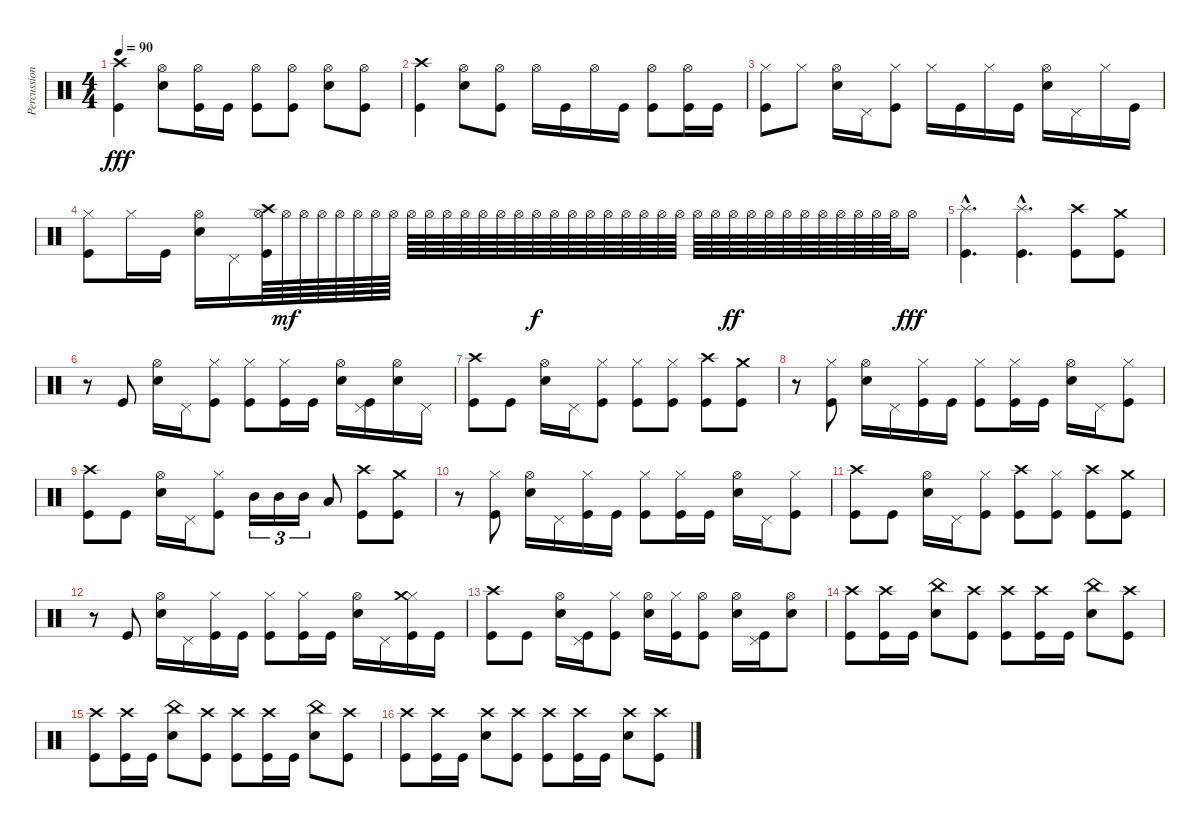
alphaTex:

\track ("Percussion" "Percussion") {instrument percussion}
\staff {score}
\articulation defaults
\ts (4 4)
\tempo 90
\clef neutral
\ks c
("Crash high (hit)" "Kick (hit)").4{dy fff} ("Hi-Hat (open)" "Electric Snare (hit)").8 ("Hi-Hat (open)" "Kick (hit)").16 "Kick (hit)".16 ("Hi-Hat (open)" "Kick (hit)").8 ("Hi-Hat (open)" "Kick (hit)").8 ("Hi-Hat (open)" "Electric Snare (hit)").8 ("Hi-Hat (open)" "Kick (hit)").8 |
("Crash high (hit)" "Kick (hit)").4 ("Hi-Hat (open)" "Electric Snare (hit)").8 ("Hi-Hat (open)" "Kick (hit)").8 "Hi-Hat (open)".16 "Kick (hit)".16 "Hi-Hat (open)".16 "Kick (hit)".16 ("Hi-Hat (open)" "Kick (hit)").8 ("Hi-Hat (open)" "Kick (hit)").16 "Kick (hit)".16 |
("Hi-Hat (closed)" "Kick (hit)").8 "Hi-Hat (closed)".8 ("Hi-Hat (open)" "Electric Snare (hit)").16 "Pedal Hi-Hat (hit)".16 ("Hi-Hat (closed)" "Kick (hit)").8 "Hi-Hat (closed)".16 "Kick (hit)".16 "Hi-Hat (closed)".16 "Kick (hit)".16 ("Hi-Hat (open)" "Electric Snare (hit)").16 "Pedal Hi-Hat (hit)".16 "Hi-Hat (closed)".16 "Kick (hit)".16 |
("Hi-Hat (closed)" "Kick (hit)").8 "Hi-Hat (closed)".16 "Kick (hit)".16 ("Hi-Hat (open)" "Electric Snare (hit)").16 "Pedal Hi-Hat (hit)".16 ("Hi-Hat (open)" "Crash high (hit)" "Kick (hit)").64 "Hi-Hat (open)".64{dy mf} "Hi-Hat (open)".64 "Hi-Hat (open)".64 "Hi-Hat (open)".64 "Hi-Hat (open)".64 "Hi-Hat (open)".64 "Hi-Hat (open)".64 "Hi-Hat (open)".64 "Hi-Hat (open)".64 "Hi-Hat (open)".64 "Hi-Hat (open)".64 "Hi-Hat (open)".64 "Hi-Hat (open)".64 "Hi-Hat (open)".64 "Hi-Hat (open)".64{dy f} "Hi-Hat (open)".64 "Hi-Hat (open)".64 "Hi-Hat (open)".64 "Hi-Hat (open)".64 "Hi-Hat (open)".64 "Hi-Hat (open)".64 "Hi-Hat (open)".64 "Hi-Hat (open)".64 "Hi-Hat (open)".64 "Hi-Hat (open)".64 "Hi-Hat (open)".64{dy ff} "Hi-Hat (open)".64 "Hi-Hat (open)".64 "Hi-Hat (open)".64 "Hi-Hat (open)".64 "Hi-Hat (open)".64 "Hi-Hat (open)".64 "Hi-Hat (open)".64 "Hi-Hat (open)".64 "Hi-Hat (open)".64 "Hi-Hat (open)".16{dy fff} |
("Splash (hit)"{hac} "Kick (hit)"{hac}).4{d} ("Splash (hit)"{hac} "Kick (hit)"{hac}).4{d} ("Crash high (hit)" "Kick (hit)").8 ("Crash medium (hit)" "Kick (hit)").8 |
r.8 "Kick (hit)".8 ("Hi-Hat (open)" "Electric Snare (hit)").16 "Pedal Hi-Hat (hit)".16 ("Hi-Hat (closed)" "Kick (hit)").8 ("Hi-Hat (closed)" "Kick (hit)").8 ("Hi-Hat (closed)" "Kick (hit)").16 "Kick (hit)".16 ("Hi-Hat (open)" "Electric Snare (hit)").16 ("Pedal Hi-Hat (hit)" "Kick (hit)").16 ("Hi-Hat (open)" "Electric Snare (hit)").16 "Pedal Hi-Hat (hit)".16 |
("Crash high (hit)" "Kick (hit)").8 "Kick (hit)".8 ("Hi-Hat (open)" "Electric Snare (hit)").16 "Pedal Hi-Hat (hit)".16 ("Hi-Hat (closed)" "Kick (hit)").8 ("Hi-Hat (closed)" "Kick (hit)").8 ("Hi-Hat (closed)" "Kick (hit)").8 ("Crash high (hit)" "Kick (hit)").8 ("Crash medium (hit)" "Kick (hit)").8 |
r.8 ("Hi-Hat (closed)" "Kick (hit)").8 ("Hi-Hat (open)" "Electric Snare (hit)").16 "Pedal Hi-Hat (hit)".16 ("Hi-Hat (closed)" "Kick (hit)").16 "Kick (hit)".16 ("Hi-Hat (closed)" "Kick (hit)").8 ("Hi-Hat (closed)" "Kick (hit)").16 "Kick (hit)".16 ("Hi-Hat (open)" "Electric Snare (hit)").16 "Pedal Hi-Hat (hit)".16 ("Hi-Hat (closed)" "Kick (hit)").8 |
("Crash high (hit)" "Kick (hit)").8 "Kick (hit)".8 ("Hi-Hat (open)" "Electric Snare (hit)").16 "Pedal Hi-Hat (hit)".16 ("Hi-Hat (closed)" "Kick (hit)").8 "Mid Tom (hit)".16{tu (3 2)} "Mid Tom (hit)".16{tu (3 2)} "Mid Tom (hit)".16{tu (3 2)} "Low Tom (hit)".8 ("Crash high (hit)" "Kick (hit)").8 ("Crash medium (hit)" "Kick (hit)").8 |
r.8 ("Hi-Hat (closed)" "Kick (hit)").8 ("Hi-Hat (open)" "Electric Snare (hit)").16 "Pedal Hi-Hat (hit)".16 ("Hi-Hat (closed)" "Kick (hit)").16 "Kick (hit)".16 ("Hi-Hat (closed)" "Kick (hit)").8 ("Hi-Hat (closed)" "Kick (hit)").16 "Kick (hit)".16 ("Hi-Hat (open)" "Electric Snare (hit)").16 "Pedal Hi-Hat (hit)".16 ("Hi-Hat (closed)" "Kick (hit)").8 |
("Crash high (hit)" "Kick (hit)").8 "Kick (hit)".8 ("Hi-Hat (open)" "Electric Snare (hit)").16 "Pedal Hi-Hat (hit)".16 ("Hi-Hat (closed)" "Kick (hit)").8 ("Crash high (hit)" "Kick (hit)").8 ("Hi-Hat (closed)" "Kick (hit)").8 ("Crash high (hit)" "Kick (hit)").8 ("Crash medium (hit)" "Kick (hit)").8 |
r.8 "Kick (hit)".8 ("Hi-Hat (open)" "Electric Snare (hit)").16 "Pedal Hi-Hat (hit)".16 ("Hi-Hat (closed)" "Kick (hit)").16 "Kick (hit)".16 ("Hi-Hat (closed)" "Kick (hit)").8 ("Hi-Hat (closed)" "Kick (hit)").16 "Kick (hit)".16 ("Hi-Hat (open)" "Electric Snare (hit)").16 "Pedal Hi-Hat (hit)".16 ("Hi-Hat (closed)" "Crash medium (hit)" "Kick (hit)").16 "Kick (hit)".16 |
("Crash high (hit)" "Kick (hit)").8 "Kick (hit)".8 ("Hi-Hat (open)" "Electric Snare (hit)").16 ("Pedal Hi-Hat (hit)" "Kick (hit)").16 ("Hi-Hat (closed)" "Kick (hit)").8 ("Hi-Hat (open)" "Electric Snare (hit)").16 ("Hi-Hat (closed)" "Kick (hit)").16 ("Hi-Hat (open)" "Kick (hit)").8 ("Hi-Hat (open)" "Electric Snare (hit)").16 ("Pedal Hi-Hat (hit)" "Kick (hit)").16 ("Hi-Hat (open)" "Electric Snare (hit)").8 |
("Crash high (hit)" "Kick (hit)").8 ("Crash high (hit)" "Kick (hit)").16 "Kick (hit)".16 ("China (hit)" "Electric Snare (hit)").8 ("Crash high (hit)" "Kick (hit)").8 ("Crash high (hit)" "Kick (hit)").8 ("Crash high (hit)" "Kick (hit)").16 "Kick (hit)".16 ("China (hit)" "Electric Snare (hit)").8 ("Crash high (hit)" "Kick (hit)").8 |
("Crash high (hit)" "Kick (hit)").8 ("Crash high (hit)" "Kick (hit)").16 "Kick (hit)".16 ("China (hit)" "Electric Snare (hit)").8 ("Crash high (hit)" "Kick (hit)").8 ("Crash high (hit)" "Kick (hit)").8 ("Crash high (hit)" "Kick (hit)").16 "Kick (hit)".16 ("China (hit)" "Electric Snare (hit)").8 ("Crash high (hit)" "Kick (hit)").8 |
("Crash high (hit)" "Kick (hit)").8 ("Crash high (hit)" "Kick (hit)").16 "Kick (hit)".16 ("Crash high (hit)" "Electric Snare (hit)").8 ("Crash high (hit)" "Kick (hit)").8 ("Crash high (hit)" "Kick (hit)").8 ("Crash high (hit)" "Kick (hit)").16 "Kick (hit)".16 ("Crash high (hit)" "Electric Snare (hit)").8 ("Crash high (hit)" "Kick (hit)").8
